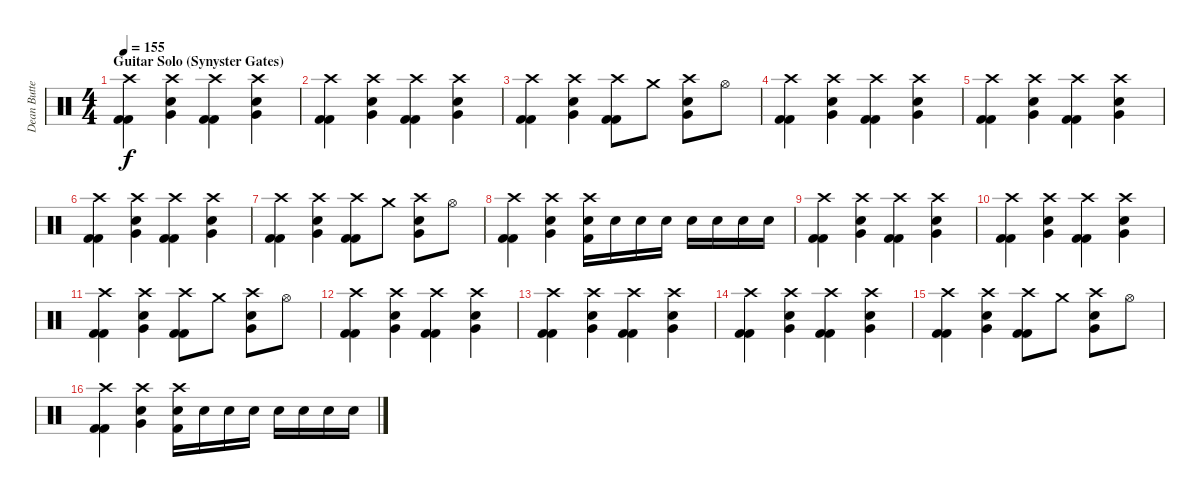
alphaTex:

\track ("Dean Butterworth [Drums]" "Dean Butte") {instrument percussion}
\staff {score}
\articulation defaults
\ts (4 4)
\section ("" "Guitar Solo (Synyster Gates)")
\tempo 155
\clef neutral
\ks c
("Crash high (hit)" "Kick (hit) 2" "Kick (hit) 2").4{dy f} ("Crash high (hit)" "Very Low Tom (hit)" "Electric Snare (hit)").4 ("Crash high (hit)" "Kick (hit) 2" "Kick (hit) 2").4 ("Crash high (hit)" "Very Low Tom (hit)" "Electric Snare (hit)").4 |
("Crash high (hit)" "Kick (hit) 2" "Kick (hit) 2").4 ("Crash high (hit)" "Very Low Tom (hit)" "Electric Snare (hit)").4 ("Crash high (hit)" "Kick (hit) 2" "Kick (hit) 2").4 ("Crash high (hit)" "Very Low Tom (hit)" "Electric Snare (hit)").4 |
("Crash high (hit)" "Kick (hit) 2" "Kick (hit) 2").4 ("Crash high (hit)" "Very Low Tom (hit)" "Electric Snare (hit)").4 ("Crash high (hit)" "Kick (hit) 2" "Kick (hit) 2").8 "Crash medium (hit)".8 ("Crash high (hit)" "Very Low Tom (hit)" "Electric Snare (hit)").8 "Hi-Hat (open)".8 |
("Crash high (hit)" "Kick (hit) 2" "Kick (hit) 2").4 ("Crash high (hit)" "Very Low Tom (hit)" "Electric Snare (hit)").4 ("Crash high (hit)" "Kick (hit) 2" "Kick (hit) 2").4 ("Crash high (hit)" "Very Low Tom (hit)" "Electric Snare (hit)").4 |
("Crash high (hit)" "Kick (hit) 2" "Kick (hit) 2").4 ("Crash high (hit)" "Very Low Tom (hit)" "Electric Snare (hit)").4 ("Crash high (hit)" "Kick (hit) 2" "Kick (hit) 2").4 ("Crash high (hit)" "Very Low Tom (hit)" "Electric Snare (hit)").4 |
("Crash high (hit)" "Kick (hit) 2" "Kick (hit) 2").4 ("Crash high (hit)" "Very Low Tom (hit)" "Electric Snare (hit)").4 ("Crash high (hit)" "Kick (hit) 2" "Kick (hit) 2").4 ("Crash high (hit)" "Very Low Tom (hit)" "Electric Snare (hit)").4 |
("Crash high (hit)" "Kick (hit) 2" "Kick (hit) 2").4 ("Crash high (hit)" "Very Low Tom (hit)" "Electric Snare (hit)").4 ("Crash high (hit)" "Kick (hit) 2" "Kick (hit) 2").8 "Crash medium (hit)".8 ("Crash high (hit)" "Very Low Tom (hit)" "Electric Snare (hit)").8 "Hi-Hat (open)".8 |
("Crash high (hit)" "Kick (hit) 2" "Kick (hit) 2").4 ("Crash high (hit)" "Very Low Tom (hit)" "Electric Snare (hit)").4 ("Crash high (hit)" "Electric Snare (hit)" "Kick (hit) 2").16 "Electric Snare (hit)".16 "Electric Snare (hit)".16 "Electric Snare (hit)".16 "Electric Snare (hit)".16 "Electric Snare (hit)".16 "Electric Snare (hit)".16 "Electric Snare (hit)".16 |
("Crash high (hit)" "Kick (hit) 2" "Kick (hit) 2").4 ("Crash high (hit)" "Very Low Tom (hit)" "Electric Snare (hit)").4 ("Crash high (hit)" "Kick (hit) 2" "Kick (hit) 2").4 ("Crash high (hit)" "Very Low Tom (hit)" "Electric Snare (hit)").4 |
("Crash high (hit)" "Kick (hit) 2" "Kick (hit) 2").4 ("Crash high (hit)" "Very Low Tom (hit)" "Electric Snare (hit)").4 ("Crash high (hit)" "Kick (hit) 2" "Kick (hit) 2").4 ("Crash high (hit)" "Very Low Tom (hit)" "Electric Snare (hit)").4 |
("Crash high (hit)" "Kick (hit) 2" "Kick (hit) 2").4 ("Crash high (hit)" "Very Low Tom (hit)" "Electric Snare (hit)").4 ("Crash high (hit)" "Kick (hit) 2" "Kick (hit) 2").8 "Crash medium (hit)".8 ("Crash high (hit)" "Very Low Tom (hit)" "Electric Snare (hit)").8 "Hi-Hat (open)".8 |
("Crash high (hit)" "Kick (hit) 2" "Kick (hit) 2").4 ("Crash high (hit)" "Very Low Tom (hit)" "Electric Snare (hit)").4 ("Crash high (hit)" "Kick (hit) 2" "Kick (hit) 2").4 ("Crash high (hit)" "Very Low Tom (hit)" "Electric Snare (hit)").4 |
("Crash high (hit)" "Kick (hit) 2" "Kick (hit) 2").4 ("Crash high (hit)" "Very Low Tom (hit)" "Electric Snare (hit)").4 ("Crash high (hit)" "Kick (hit) 2" "Kick (hit) 2").4 ("Crash high (hit)" "Very Low Tom (hit)" "Electric Snare (hit)").4 |
("Crash high (hit)" "Kick (hit) 2" "Kick (hit) 2").4 ("Crash high (hit)" "Very Low Tom (hit)" "Electric Snare (hit)").4 ("Crash high (hit)" "Kick (hit) 2" "Kick (hit) 2").4 ("Crash high (hit)" "Very Low Tom (hit)" "Electric Snare (hit)").4 |
("Crash high (hit)" "Kick (hit) 2" "Kick (hit) 2").4 ("Crash high (hit)" "Very Low Tom (hit)" "Electric Snare (hit)").4 ("Crash high (hit)" "Kick (hit) 2" "Kick (hit) 2").8 "Crash medium (hit)".8 ("Crash high (hit)" "Very Low Tom (hit)" "Electric Snare (hit)").8 "Hi-Hat (open)".8 |
("Crash high (hit)" "Kick (hit) 2" "Kick (hit) 2").4 ("Crash high (hit)" "Very Low Tom (hit)" "Electric Snare (hit)").4 ("Crash high (hit)" "Electric Snare (hit)" "Kick (hit) 2").16 "Electric Snare (hit)".16 "Electric Snare (hit)".16 "Electric Snare (hit)".16 "Electric Snare (hit)".16 "Electric Snare (hit)".16 "Electric Snare (hit)".16 "Electric Snare (hit)".16
